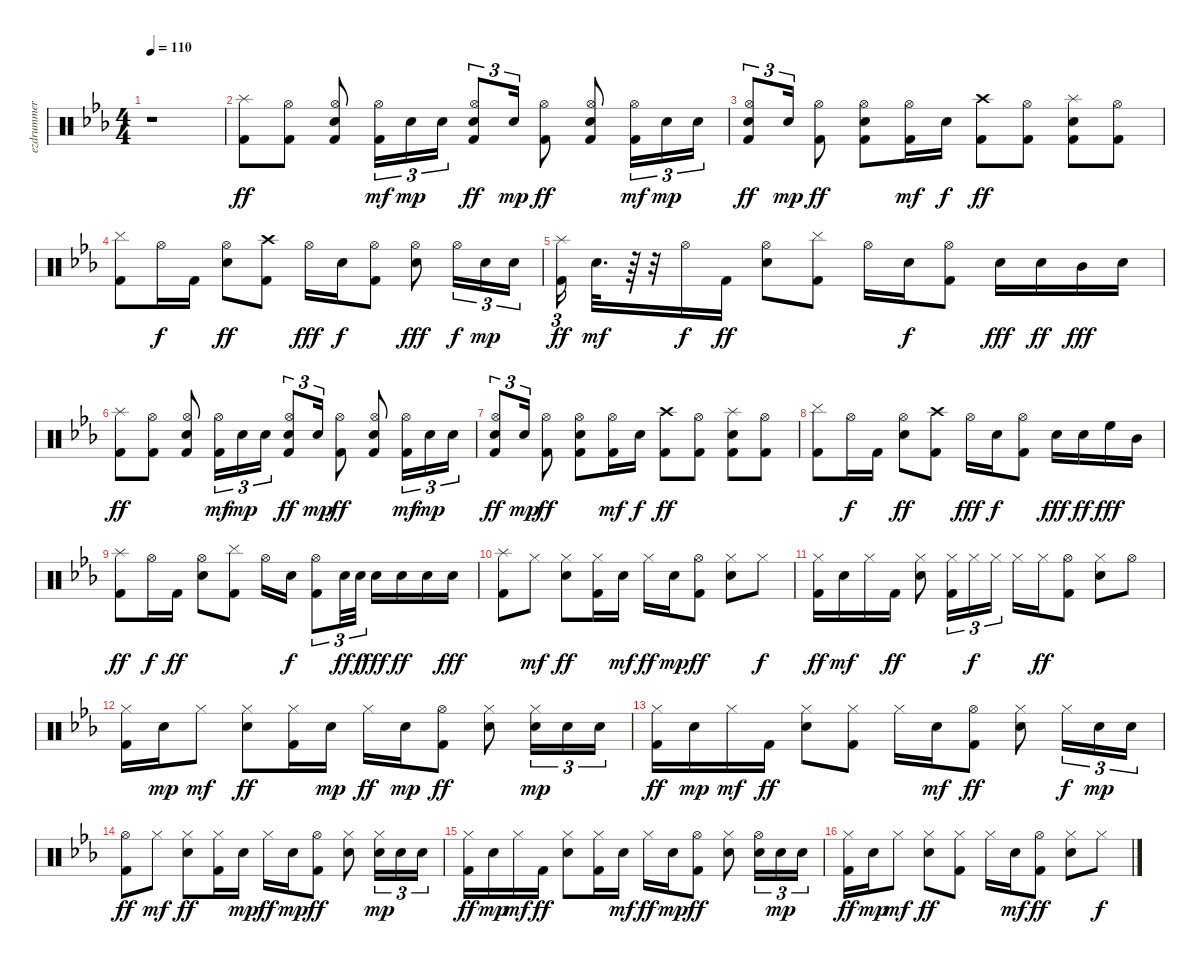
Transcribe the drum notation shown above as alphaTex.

\track ("ezdrummer 03" "ezdrummer ") {instrument percussion}
\staff {score}
\articulation defaults
\ts (4 4)
\tempo 110
\clef neutral
\ks cminor
r.1{dy ff} |
("Kick (hit) 2" "Splash (hit)").8 ("Kick (hit) 2" "Hi-Hat (open)").8 ("Kick (hit) 2" "Snare (hit) 2" "Hi-Hat (open)").8 ("Kick (hit) 2" "Hi-Hat (open)").16{tu (3 2) dy mf} "Snare (hit) 2".16{tu (3 2) dy mp} "Snare (hit) 2".16{tu (3 2)} ("Kick (hit) 2" "Snare (hit) 2" "Hi-Hat (open)").8{tu (3 2) dy ff} "Snare (hit) 2".16{tu (3 2) dy mp} ("Kick (hit) 2" "Hi-Hat (open)").8{dy ff} ("Kick (hit) 2" "Snare (hit) 2" "Hi-Hat (open)").8 ("Kick (hit) 2" "Hi-Hat (open)").16{tu (3 2) dy mf} "Snare (hit) 2".16{tu (3 2) dy mp} "Snare (hit) 2".16{tu (3 2)} |
("Kick (hit) 2" "Snare (hit) 2" "Hi-Hat (open)").8{tu (3 2) dy ff} "Snare (hit) 2".16{tu (3 2) dy mp} ("Kick (hit) 2" "Hi-Hat (open)").8{dy ff} ("Kick (hit) 2" "Snare (hit) 2" "Hi-Hat (open)").8 ("Kick (hit) 2" "Hi-Hat (open)").16{dy mf} "Snare (hit) 2".16{dy f} ("Kick (hit) 2" "Crash high (hit)").8{dy ff} ("Kick (hit) 2" "Hi-Hat (open)").8 ("Kick (hit) 2" "Snare (hit) 2" "Splash (hit)").8 ("Kick (hit) 2" "Hi-Hat (open)").8 |
("Cymbal (hit)" "Kick (hit) 2").8 "Hi-Hat (open)".16{dy f} "Kick (hit) 2".16 ("Snare (hit) 2" "Hi-Hat (open)").8{dy ff} ("Kick (hit) 2" "Crash high (hit)").8 "Hi-Hat (open)".16{dy fff} "Snare (hit) 2".16{dy f} ("Kick (hit) 2" "Hi-Hat (open)").8 ("Snare (hit) 2" "Hi-Hat (open)").8{dy fff} "Hi-Hat (open)".16{tu (3 2) dy f} "Snare (hit) 2".16{tu (3 2) dy mp} "Snare (hit) 2".16{tu (3 2)} |
("Kick (hit) 2" "Splash (hit)").16{tu (3 2) dy ff} "Snare (hit) 2".32{d dy mf} r.64 r.32 "Hi-Hat (open)".16{dy f} "Kick (hit) 2".16{dy ff} ("Snare (hit) 2" "Hi-Hat (open)").8 ("Cymbal (hit)" "Kick (hit) 2").8 "Hi-Hat (open)".16 "Snare (hit) 2".16{dy f} ("Kick (hit) 2" "Hi-Hat (open)").8 "Snare (hit) 2".16{dy fff} "Snare (hit) 2".16{dy ff} "Mid Tom (hit)".16{dy fff} "Snare (hit) 2".16 |
("Kick (hit) 2" "Splash (hit)").8{dy ff} ("Kick (hit) 2" "Hi-Hat (open)").8 ("Kick (hit) 2" "Snare (hit) 2" "Hi-Hat (open)").8 ("Kick (hit) 2" "Hi-Hat (open)").16{tu (3 2) dy mf} "Snare (hit) 2".16{tu (3 2) dy mp} "Snare (hit) 2".16{tu (3 2)} ("Kick (hit) 2" "Snare (hit) 2" "Hi-Hat (open)").8{tu (3 2) dy ff} "Snare (hit) 2".16{tu (3 2) dy mp} ("Kick (hit) 2" "Hi-Hat (open)").8{dy ff} ("Kick (hit) 2" "Snare (hit) 2" "Hi-Hat (open)").8 ("Kick (hit) 2" "Hi-Hat (open)").16{tu (3 2) dy mf} "Snare (hit) 2".16{tu (3 2) dy mp} "Snare (hit) 2".16{tu (3 2)} |
("Kick (hit) 2" "Snare (hit) 2" "Hi-Hat (open)").8{tu (3 2) dy ff} "Snare (hit) 2".16{tu (3 2) dy mp} ("Kick (hit) 2" "Hi-Hat (open)").8{dy ff} ("Kick (hit) 2" "Snare (hit) 2" "Hi-Hat (open)").8 ("Kick (hit) 2" "Hi-Hat (open)").16{dy mf} "Snare (hit) 2".16{dy f} ("Kick (hit) 2" "Crash high (hit)").8{dy ff} ("Kick (hit) 2" "Hi-Hat (open)").8 ("Kick (hit) 2" "Snare (hit) 2" "Splash (hit)").8 ("Kick (hit) 2" "Hi-Hat (open)").8 |
("Cymbal (hit)" "Kick (hit) 2").8 "Hi-Hat (open)".16{dy f} "Kick (hit) 2".16 ("Snare (hit) 2" "Hi-Hat (open)").8{dy ff} ("Kick (hit) 2" "Crash high (hit)").8 "Hi-Hat (open)".16{dy fff} "Snare (hit) 2".16{dy f} ("Kick (hit) 2" "Hi-Hat (open)").8 "Snare (hit) 2".16{dy fff} "Snare (hit) 2".16{dy ff} "High Floor Tom (hit)".16{dy fff} "Mid Tom (hit)".16 |
("Kick (hit) 2" "Splash (hit)").8{dy ff} "Hi-Hat (open)".16{dy f} "Kick (hit) 2".16{dy ff} ("Snare (hit) 2" "Hi-Hat (open)").8 ("Cymbal (hit)" "Kick (hit) 2").8 "Hi-Hat (open)".16 "Snare (hit) 2".16{dy f} ("Kick (hit) 2" "Hi-Hat (open)").8{tu (3 2)} "Snare (hit) 2".32{tu (3 2) dy ff} "Snare (hit) 2".32{tu (3 2) dy f} "Snare (hit) 2".16{dy fff} "Snare (hit) 2".16{dy ff} "Snare (hit) 2".16 "Snare (hit) 2".16{dy fff} |
("Kick (hit) 2" "Splash (hit)").8 "Hi-Hat (closed)".8{dy mf} ("Snare (hit) 2" "Hi-Hat (closed)").8{dy ff} ("Kick (hit) 2" "Hi-Hat (closed)").16 "Snare (hit) 2".16{dy mf} "Hi-Hat (closed)".16{dy ff} "Snare (hit) 2".16{dy mp} ("Kick (hit) 2" "Hi-Hat (open)").8{dy ff} ("Snare (hit) 2" "Hi-Hat (closed)").8 "Hi-Hat (closed)".8{dy f} |
("Kick (hit) 2" "Hi-Hat (closed)").16{dy ff} "Snare (hit) 2".16{dy mf} "Hi-Hat (closed)".16 "Kick (hit) 2".16{dy ff} ("Snare (hit) 2" "Hi-Hat (closed)").8 ("Kick (hit) 2" "Hi-Hat (closed)").16{tu (3 2)} "Hi-Hat (closed)".16{tu (3 2) dy f} "Hi-Hat (closed)".16{tu (3 2)} "Hi-Hat (closed)".16 "Hi-Hat (closed)".16{dy ff} ("Kick (hit) 2" "Hi-Hat (open)").8 ("Snare (hit) 2" "Hi-Hat (closed)").8 "Hi-Hat (open)".8 |
("Kick (hit) 2" "Hi-Hat (closed)").16 "Snare (hit) 2".16{dy mp} "Hi-Hat (closed)".8{dy mf} ("Snare (hit) 2" "Hi-Hat (closed)").8{dy ff} ("Kick (hit) 2" "Hi-Hat (closed)").16 "Snare (hit) 2".16{dy mp} "Hi-Hat (closed)".16{dy ff} "Snare (hit) 2".16{dy mp} ("Kick (hit) 2" "Hi-Hat (open)").8{dy ff} ("Snare (hit) 2" "Hi-Hat (closed)").8 ("Snare (hit) 2" "Hi-Hat (closed)").16{tu (3 2) dy mp} "Snare (hit) 2".16{tu (3 2)} "Snare (hit) 2".16{tu (3 2)} |
("Kick (hit) 2" "Hi-Hat (closed)").16{dy ff} "Snare (hit) 2".16{dy mp} "Hi-Hat (closed)".16{dy mf} "Kick (hit) 2".16{dy ff} ("Snare (hit) 2" "Hi-Hat (closed)").8 ("Kick (hit) 2" "Hi-Hat (closed)").8 "Hi-Hat (closed)".16 "Snare (hit) 2".16{dy mf} ("Kick (hit) 2" "Hi-Hat (open)").8{dy ff} ("Snare (hit) 2" "Hi-Hat (closed)").8 "Hi-Hat (closed)".16{tu (3 2) dy f} "Snare (hit) 2".16{tu (3 2) dy mp} "Snare (hit) 2".16{tu (3 2)} |
("Kick (hit) 2" "Hi-Hat (open)").8{dy ff} "Hi-Hat (closed)".8{dy mf} ("Snare (hit) 2" "Hi-Hat (closed)").8{dy ff} ("Kick (hit) 2" "Hi-Hat (closed)").16 "Snare (hit) 2".16{dy mp} "Hi-Hat (closed)".16{dy ff} "Snare (hit) 2".16{dy mp} ("Kick (hit) 2" "Hi-Hat (open)").8{dy ff} ("Snare (hit) 2" "Hi-Hat (closed)").8 ("Snare (hit) 2" "Hi-Hat (closed)").16{tu (3 2) dy mp} "Snare (hit) 2".16{tu (3 2)} "Snare (hit) 2".16{tu (3 2)} |
("Kick (hit) 2" "Hi-Hat (closed)").16{dy ff} "Snare (hit) 2".16{dy mp} "Hi-Hat (closed)".16{dy mf} "Kick (hit) 2".16{dy ff} ("Snare (hit) 2" "Hi-Hat (closed)").8 ("Kick (hit) 2" "Hi-Hat (closed)").16 "Snare (hit) 2".16{dy mf} "Hi-Hat (closed)".16{dy ff} "Snare (hit) 2".16{dy mp} ("Kick (hit) 2" "Hi-Hat (open)").8{dy ff} ("Snare (hit) 2" "Hi-Hat (closed)").8 ("Snare (hit) 2" "Hi-Hat (open)").16{tu (3 2)} "Snare (hit) 2".16{tu (3 2) dy mp} "Snare (hit) 2".16{tu (3 2)} |
("Kick (hit) 2" "Hi-Hat (closed)").16{dy ff} "Snare (hit) 2".16{dy mp} "Hi-Hat (closed)".8{dy mf} ("Snare (hit) 2" "Hi-Hat (closed)").8{dy ff} ("Kick (hit) 2" "Hi-Hat (closed)").8 "Hi-Hat (closed)".16 "Snare (hit) 2".16{dy mf} ("Kick (hit) 2" "Hi-Hat (open)").8{dy ff} ("Snare (hit) 2" "Hi-Hat (closed)").8 "Hi-Hat (closed)".8{dy f}
